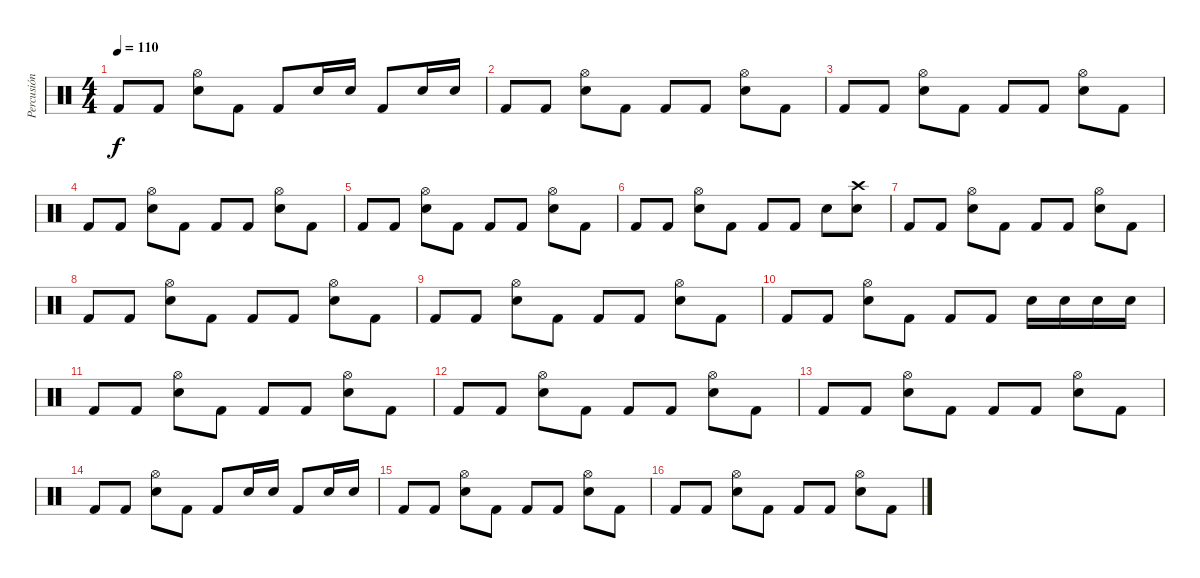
\track ("Percusión" "Percusión") {instrument percussion}
\staff {score}
\articulation defaults
\ts (4 4)
\tempo 110
\clef neutral
\ks c "Kick (hit) 2".8{dy f} "Kick (hit) 2".8
("Hi-Hat (open)" "Snare (hit) 2").8 "Kick (hit) 2".8 "Kick (hit) 2".8 "Snare (hit) 2".16 "Snare (hit) 2".16 "Kick (hit) 2".8 "Snare (hit) 2".16 "Snare (hit) 2".16 |
"Kick (hit) 2".8 "Kick (hit) 2".8 ("Hi-Hat (open)" "Snare (hit) 2").8 "Kick (hit) 2".8 "Kick (hit) 2".8 "Kick (hit) 2".8 ("Hi-Hat (open)" "Snare (hit) 2").8 "Kick (hit) 2".8 |
"Kick (hit) 2".8 "Kick (hit) 2".8 ("Hi-Hat (open)" "Snare (hit) 2").8 "Kick (hit) 2".8 "Kick (hit) 2".8 "Kick (hit) 2".8 ("Hi-Hat (open)" "Snare (hit) 2").8 "Kick (hit) 2".8 |
"Kick (hit) 2".8 "Kick (hit) 2".8 ("Hi-Hat (open)" "Snare (hit) 2").8 "Kick (hit) 2".8 "Kick (hit) 2".8 "Kick (hit) 2".8 ("Hi-Hat (open)" "Snare (hit) 2").8 "Kick (hit) 2".8 |
"Kick (hit) 2".8 "Kick (hit) 2".8 ("Hi-Hat (open)" "Snare (hit) 2").8 "Kick (hit) 2".8 "Kick (hit) 2".8 "Kick (hit) 2".8 ("Hi-Hat (open)" "Snare (hit) 2").8 "Kick (hit) 2".8 |
"Kick (hit) 2".8 "Kick (hit) 2".8 ("Hi-Hat (open)" "Snare (hit) 2").8 "Kick (hit) 2".8 "Kick (hit) 2".8 "Kick (hit) 2".8 "Snare (hit) 2".8 ("Crash high (hit)" "Electric Snare (hit)").8 |
"Kick (hit) 2".8 "Kick (hit) 2".8 ("Hi-Hat (open)" "Snare (hit) 2").8 "Kick (hit) 2".8 "Kick (hit) 2".8 "Kick (hit) 2".8 ("Hi-Hat (open)" "Snare (hit) 2").8 "Kick (hit) 2".8 |
"Kick (hit) 2".8 "Kick (hit) 2".8 ("Hi-Hat (open)" "Snare (hit) 2").8 "Kick (hit) 2".8 "Kick (hit) 2".8 "Kick (hit) 2".8 ("Hi-Hat (open)" "Snare (hit) 2").8 "Kick (hit) 2".8 |
"Kick (hit) 2".8 "Kick (hit) 2".8 ("Hi-Hat (open)" "Snare (hit) 2").8 "Kick (hit) 2".8 "Kick (hit) 2".8 "Kick (hit) 2".8 ("Hi-Hat (open)" "Snare (hit) 2").8 "Kick (hit) 2".8 |
"Kick (hit) 2".8 "Kick (hit) 2".8 ("Hi-Hat (open)" "Snare (hit) 2").8 "Kick (hit) 2".8 "Kick (hit) 2".8 "Kick (hit) 2".8 "Snare (hit) 2".16 "Snare (hit) 2".16 "Snare (hit) 2".16 "Snare (hit) 2".16 |
"Kick (hit) 2".8 "Kick (hit) 2".8 ("Hi-Hat (open)" "Snare (hit) 2").8 "Kick (hit) 2".8 "Kick (hit) 2".8 "Kick (hit) 2".8 ("Hi-Hat (open)" "Snare (hit) 2").8 "Kick (hit) 2".8 |
"Kick (hit) 2".8 "Kick (hit) 2".8 ("Hi-Hat (open)" "Snare (hit) 2").8 "Kick (hit) 2".8 "Kick (hit) 2".8 "Kick (hit) 2".8 ("Hi-Hat (open)" "Snare (hit) 2").8 "Kick (hit) 2".8 |
"Kick (hit) 2".8 "Kick (hit) 2".8 ("Hi-Hat (open)" "Snare (hit) 2").8 "Kick (hit) 2".8 "Kick (hit) 2".8 "Kick (hit) 2".8 ("Hi-Hat (open)" "Snare (hit) 2").8 "Kick (hit) 2".8 |
"Kick (hit) 2".8 "Kick (hit) 2".8 ("Hi-Hat (open)" "Snare (hit) 2").8 "Kick (hit) 2".8 "Kick (hit) 2".8 "Snare (hit) 2".16 "Snare (hit) 2".16 "Kick (hit) 2".8 "Snare (hit) 2".16 "Snare (hit) 2".16 |
"Kick (hit) 2".8 "Kick (hit) 2".8 ("Hi-Hat (open)" "Snare (hit) 2").8 "Kick (hit) 2".8 "Kick (hit) 2".8 "Kick (hit) 2".8 ("Hi-Hat (open)" "Snare (hit) 2").8 "Kick (hit) 2".8 |
"Kick (hit) 2".8 "Kick (hit) 2".8 ("Hi-Hat (open)" "Snare (hit) 2").8 "Kick (hit) 2".8 "Kick (hit) 2".8 "Kick (hit) 2".8 ("Hi-Hat (open)" "Snare (hit) 2").8 "Kick (hit) 2".8
